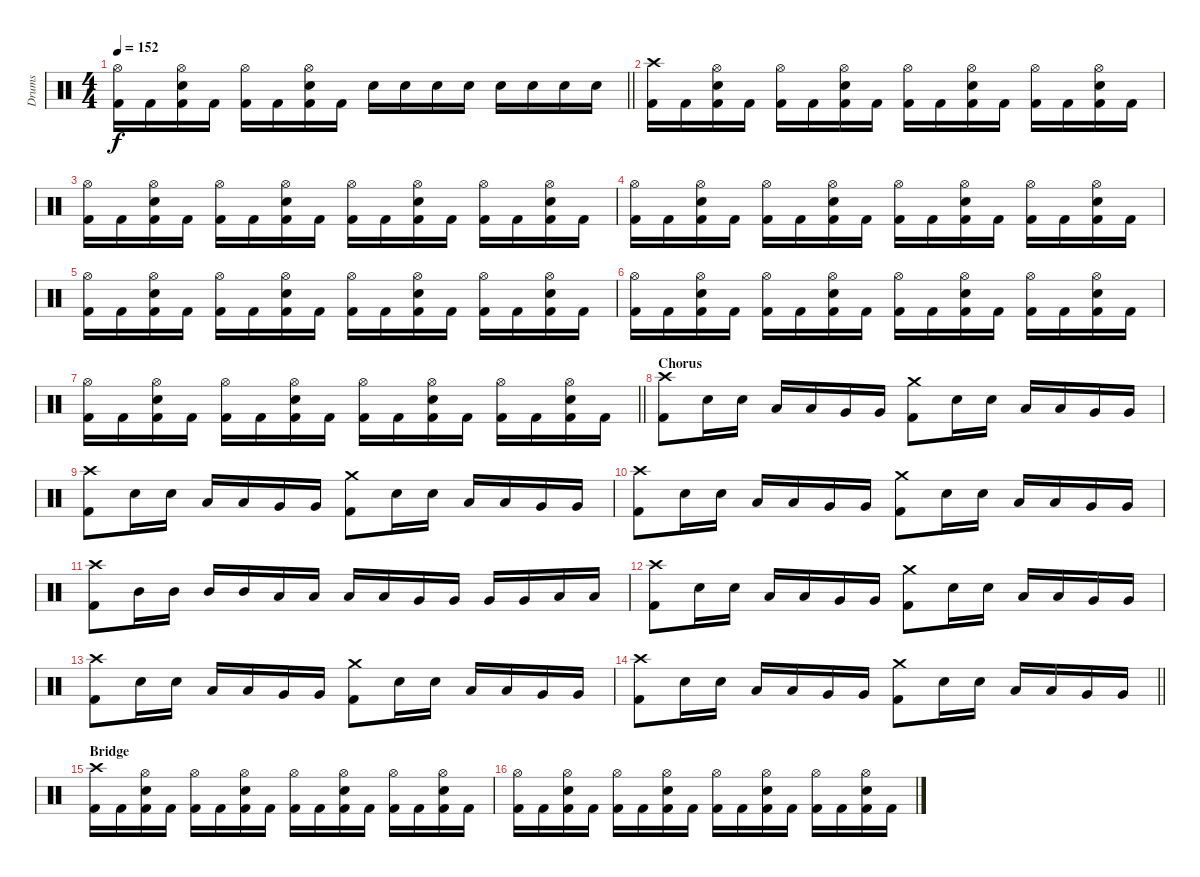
\track ("Drums" "Drums") {instrument percussion}
\staff {score}
\articulation defaults
\ts (4 4)
\tempo 152
\clef neutral
\barLineRight lightlight
\ks c
("Hi-Hat (open)" "Kick (hit) 2").16{dy f} "Kick (hit) 2".16 ("Hi-Hat (open)" "Snare (hit) 2" "Kick (hit) 2").16 "Kick (hit) 2".16 ("Hi-Hat (open)" "Kick (hit) 2").16 "Kick (hit) 2".16 ("Hi-Hat (open)" "Snare (hit) 2" "Kick (hit) 2").16 "Kick (hit) 2".16 "Snare (hit) 2".16 "Snare (hit) 2".16 "Snare (hit) 2".16 "Snare (hit) 2".16 "Snare (hit) 2".16 "Snare (hit) 2".16 "Snare (hit) 2".16 "Snare (hit) 2".16 |
("Crash high (hit)" "Kick (hit) 2").16 "Kick (hit) 2".16 ("Hi-Hat (open)" "Snare (hit) 2" "Kick (hit) 2").16 "Kick (hit) 2".16 ("Hi-Hat (open)" "Kick (hit) 2").16 "Kick (hit) 2".16 ("Hi-Hat (open)" "Snare (hit) 2" "Kick (hit) 2").16 "Kick (hit) 2".16 ("Hi-Hat (open)" "Kick (hit) 2").16 "Kick (hit) 2".16 ("Hi-Hat (open)" "Snare (hit) 2" "Kick (hit) 2").16 "Kick (hit) 2".16 ("Hi-Hat (open)" "Kick (hit) 2").16 "Kick (hit) 2".16 ("Hi-Hat (open)" "Snare (hit) 2" "Kick (hit) 2").16 "Kick (hit) 2".16 |
("Hi-Hat (open)" "Kick (hit) 2").16 "Kick (hit) 2".16 ("Hi-Hat (open)" "Snare (hit) 2" "Kick (hit) 2").16 "Kick (hit) 2".16 ("Hi-Hat (open)" "Kick (hit) 2").16 "Kick (hit) 2".16 ("Hi-Hat (open)" "Snare (hit) 2" "Kick (hit) 2").16 "Kick (hit) 2".16 ("Hi-Hat (open)" "Kick (hit) 2").16 "Kick (hit) 2".16 ("Hi-Hat (open)" "Snare (hit) 2" "Kick (hit) 2").16 "Kick (hit) 2".16 ("Hi-Hat (open)" "Kick (hit) 2").16 "Kick (hit) 2".16 ("Hi-Hat (open)" "Snare (hit) 2" "Kick (hit) 2").16 "Kick (hit) 2".16 |
("Hi-Hat (open)" "Kick (hit) 2").16 "Kick (hit) 2".16 ("Hi-Hat (open)" "Snare (hit) 2" "Kick (hit) 2").16 "Kick (hit) 2".16 ("Hi-Hat (open)" "Kick (hit) 2").16 "Kick (hit) 2".16 ("Hi-Hat (open)" "Snare (hit) 2" "Kick (hit) 2").16 "Kick (hit) 2".16 ("Hi-Hat (open)" "Kick (hit) 2").16 "Kick (hit) 2".16 ("Hi-Hat (open)" "Snare (hit) 2" "Kick (hit) 2").16 "Kick (hit) 2".16 ("Hi-Hat (open)" "Kick (hit) 2").16 "Kick (hit) 2".16 ("Hi-Hat (open)" "Snare (hit) 2" "Kick (hit) 2").16 "Kick (hit) 2".16 |
("Hi-Hat (open)" "Kick (hit) 2").16 "Kick (hit) 2".16 ("Hi-Hat (open)" "Snare (hit) 2" "Kick (hit) 2").16 "Kick (hit) 2".16 ("Hi-Hat (open)" "Kick (hit) 2").16 "Kick (hit) 2".16 ("Hi-Hat (open)" "Snare (hit) 2" "Kick (hit) 2").16 "Kick (hit) 2".16 ("Hi-Hat (open)" "Kick (hit) 2").16 "Kick (hit) 2".16 ("Hi-Hat (open)" "Snare (hit) 2" "Kick (hit) 2").16 "Kick (hit) 2".16 ("Hi-Hat (open)" "Kick (hit) 2").16 "Kick (hit) 2".16 ("Hi-Hat (open)" "Snare (hit) 2" "Kick (hit) 2").16 "Kick (hit) 2".16 |
("Hi-Hat (open)" "Kick (hit) 2").16 "Kick (hit) 2".16 ("Hi-Hat (open)" "Snare (hit) 2" "Kick (hit) 2").16 "Kick (hit) 2".16 ("Hi-Hat (open)" "Kick (hit) 2").16 "Kick (hit) 2".16 ("Hi-Hat (open)" "Snare (hit) 2" "Kick (hit) 2").16 "Kick (hit) 2".16 ("Hi-Hat (open)" "Kick (hit) 2").16 "Kick (hit) 2".16 ("Hi-Hat (open)" "Snare (hit) 2" "Kick (hit) 2").16 "Kick (hit) 2".16 ("Hi-Hat (open)" "Kick (hit) 2").16 "Kick (hit) 2".16 ("Hi-Hat (open)" "Snare (hit) 2" "Kick (hit) 2").16 "Kick (hit) 2".16 |
\barLineRight lightlight
("Hi-Hat (open)" "Kick (hit) 2").16 "Kick (hit) 2".16 ("Hi-Hat (open)" "Snare (hit) 2" "Kick (hit) 2").16 "Kick (hit) 2".16 ("Hi-Hat (open)" "Kick (hit) 2").16 "Kick (hit) 2".16 ("Hi-Hat (open)" "Snare (hit) 2" "Kick (hit) 2").16 "Kick (hit) 2".16 ("Hi-Hat (open)" "Kick (hit) 2").16 "Kick (hit) 2".16 ("Hi-Hat (open)" "Snare (hit) 2" "Kick (hit) 2").16 "Kick (hit) 2".16 ("Hi-Hat (open)" "Kick (hit) 2").16 "Kick (hit) 2".16 ("Hi-Hat (open)" "Snare (hit) 2" "Kick (hit) 2").16 "Kick (hit) 2".16 |
\section ("" "Chorus")
("Crash high (hit)" "Kick (hit) 2").8 "Snare (hit) 2".16 "Snare (hit) 2".16 "Low Tom (hit)".16 "Low Tom (hit)".16 "Very Low Tom (hit)".16 "Very Low Tom (hit)".16 ("Crash medium (hit)" "Kick (hit) 2").8 "Snare (hit) 2".16 "Snare (hit) 2".16 "Low Tom (hit)".16 "Low Tom (hit)".16 "Very Low Tom (hit)".16 "Very Low Tom (hit)".16 |
("Crash high (hit)" "Kick (hit) 2").8 "Snare (hit) 2".16 "Snare (hit) 2".16 "Low Tom (hit)".16 "Low Tom (hit)".16 "Very Low Tom (hit)".16 "Very Low Tom (hit)".16 ("Crash medium (hit)" "Kick (hit) 2").8 "Snare (hit) 2".16 "Snare (hit) 2".16 "Low Tom (hit)".16 "Low Tom (hit)".16 "Very Low Tom (hit)".16 "Very Low Tom (hit)".16 |
("Crash high (hit)" "Kick (hit) 2").8 "Snare (hit) 2".16 "Snare (hit) 2".16 "Low Tom (hit)".16 "Low Tom (hit)".16 "Very Low Tom (hit)".16 "Very Low Tom (hit)".16 ("Crash medium (hit)" "Kick (hit) 2").8 "Snare (hit) 2".16 "Snare (hit) 2".16 "Low Tom (hit)".16 "Low Tom (hit)".16 "Very Low Tom (hit)".16 "Very Low Tom (hit)".16 |
("Crash high (hit)" "Kick (hit) 2").8 "Mid Tom (hit)".16 "Mid Tom (hit)".16 "Mid Tom (hit)".16 "Mid Tom (hit)".16 "Low Tom (hit)".16 "Low Tom (hit)".16 "Low Tom (hit)".16 "Low Tom (hit)".16 "Very Low Tom (hit)".16 "Very Low Tom (hit)".16 "Very Low Tom (hit)".16 "Very Low Tom (hit)".16 "Low Floor Tom (hit)".16 "Low Floor Tom (hit)".16 |
("Crash high (hit)" "Kick (hit) 2").8 "Snare (hit) 2".16 "Snare (hit) 2".16 "Low Tom (hit)".16 "Low Tom (hit)".16 "Very Low Tom (hit)".16 "Very Low Tom (hit)".16 ("Crash medium (hit)" "Kick (hit) 2").8 "Snare (hit) 2".16 "Snare (hit) 2".16 "Low Tom (hit)".16 "Low Tom (hit)".16 "Very Low Tom (hit)".16 "Very Low Tom (hit)".16 |
("Crash high (hit)" "Kick (hit) 2").8 "Snare (hit) 2".16 "Snare (hit) 2".16 "Low Tom (hit)".16 "Low Tom (hit)".16 "Very Low Tom (hit)".16 "Very Low Tom (hit)".16 ("Crash medium (hit)" "Kick (hit) 2").8 "Snare (hit) 2".16 "Snare (hit) 2".16 "Low Tom (hit)".16 "Low Tom (hit)".16 "Very Low Tom (hit)".16 "Very Low Tom (hit)".16 |
\barLineRight lightlight
("Crash high (hit)" "Kick (hit) 2").8 "Snare (hit) 2".16 "Snare (hit) 2".16 "Low Tom (hit)".16 "Low Tom (hit)".16 "Very Low Tom (hit)".16 "Very Low Tom (hit)".16 ("Crash medium (hit)" "Kick (hit) 2").8 "Snare (hit) 2".16 "Snare (hit) 2".16 "Low Tom (hit)".16 "Low Tom (hit)".16 "Very Low Tom (hit)".16 "Very Low Tom (hit)".16 |
\section ("" "Bridge")
("Crash high (hit)" "Kick (hit) 2").16 "Kick (hit) 2".16 ("Hi-Hat (open)" "Snare (hit) 2" "Kick (hit) 2").16 "Kick (hit) 2".16 ("Hi-Hat (open)" "Kick (hit) 2").16 "Kick (hit) 2".16 ("Hi-Hat (open)" "Snare (hit) 2" "Kick (hit) 2").16 "Kick (hit) 2".16 ("Hi-Hat (open)" "Kick (hit) 2").16 "Kick (hit) 2".16 ("Hi-Hat (open)" "Snare (hit) 2" "Kick (hit) 2").16 "Kick (hit) 2".16 ("Hi-Hat (open)" "Kick (hit) 2").16 "Kick (hit) 2".16 ("Hi-Hat (open)" "Snare (hit) 2" "Kick (hit) 2").16 "Kick (hit) 2".16 |
("Hi-Hat (open)" "Kick (hit) 2").16 "Kick (hit) 2".16 ("Hi-Hat (open)" "Snare (hit) 2" "Kick (hit) 2").16 "Kick (hit) 2".16 ("Hi-Hat (open)" "Kick (hit) 2").16 "Kick (hit) 2".16 ("Hi-Hat (open)" "Snare (hit) 2" "Kick (hit) 2").16 "Kick (hit) 2".16 ("Hi-Hat (open)" "Kick (hit) 2").16 "Kick (hit) 2".16 ("Hi-Hat (open)" "Snare (hit) 2" "Kick (hit) 2").16 "Kick (hit) 2".16 ("Hi-Hat (open)" "Kick (hit) 2").16 "Kick (hit) 2".16 ("Hi-Hat (open)" "Snare (hit) 2" "Kick (hit) 2").16 "Kick (hit) 2".16
